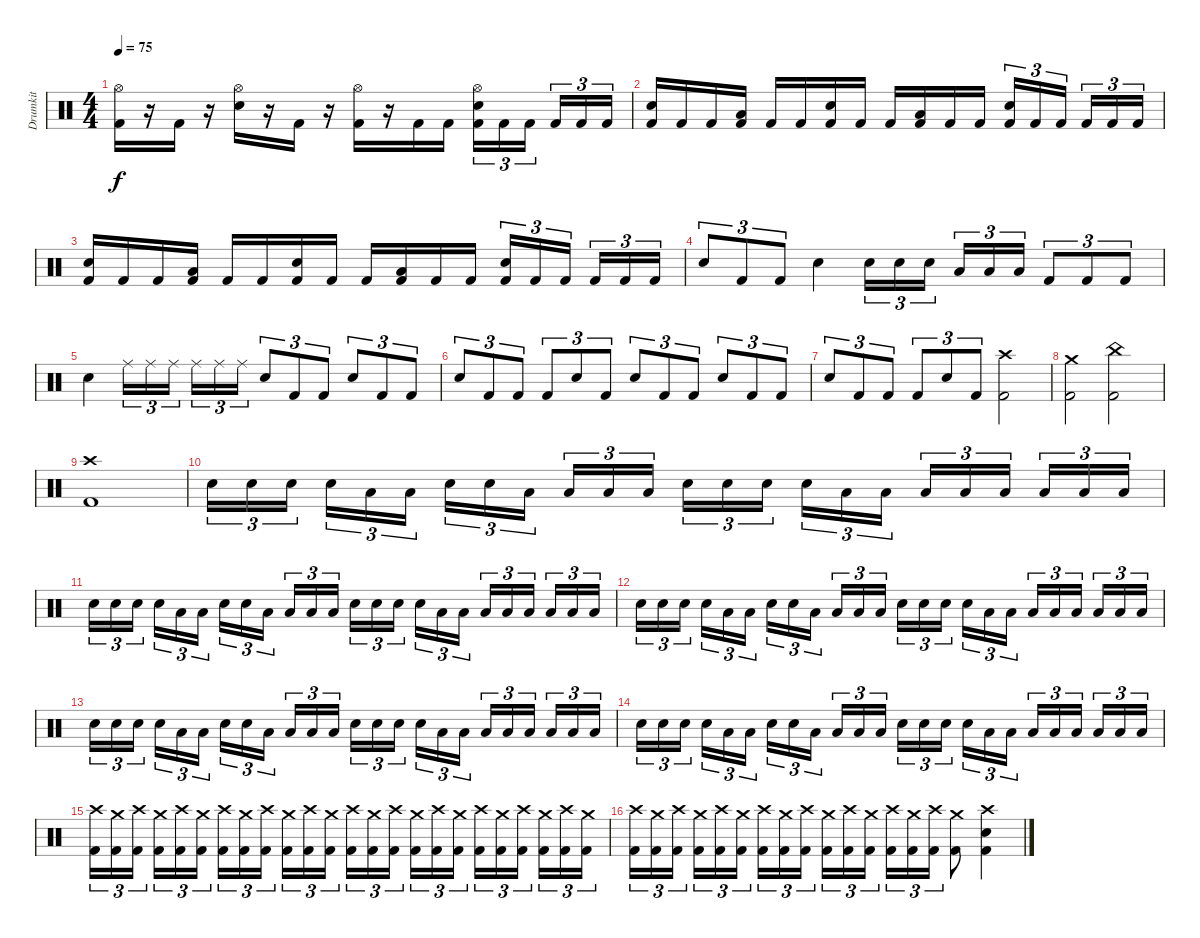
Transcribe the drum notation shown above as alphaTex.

\track ("Drumkit" "Drumkit") {instrument percussion}
\staff {score}
\articulation defaults
\ts (4 4)
\tempo 75
\clef neutral
\ks c
("Hi-Hat (open)" "Kick (hit) 2").16{dy f} r.16 "Kick (hit) 2".16 r.16 ("Hi-Hat (open)" "Snare (hit) 2").16 r.16 "Kick (hit) 2".16 r.16 ("Hi-Hat (open)" "Kick (hit) 2").16 r.16 "Kick (hit) 2".16 "Kick (hit) 2".16 ("Hi-Hat (open)" "Snare (hit) 2" "Kick (hit) 2").16{tu (3 2)} "Kick (hit) 2".16{tu (3 2)} "Kick (hit) 2".16{tu (3 2)} "Kick (hit) 2".16{tu (3 2)} "Kick (hit) 2".16{tu (3 2)} "Kick (hit) 2".16{tu (3 2)} |
("Snare (hit) 2" "Kick (hit) 2").16 "Kick (hit) 2".16 "Kick (hit) 2".16 ("Low Floor Tom (hit)" "Kick (hit) 2").16 "Kick (hit) 2".16 "Kick (hit) 2".16 ("Snare (hit) 2" "Kick (hit) 2").16 "Kick (hit) 2".16 "Kick (hit) 2".16 ("Low Floor Tom (hit)" "Kick (hit) 2").16 "Kick (hit) 2".16 "Kick (hit) 2".16 ("Snare (hit) 2" "Kick (hit) 2").16{tu (3 2)} "Kick (hit) 2".16{tu (3 2)} "Kick (hit) 2".16{tu (3 2)} "Kick (hit) 2".16{tu (3 2)} "Kick (hit) 2".16{tu (3 2)} "Kick (hit) 2".16{tu (3 2)} |
("Snare (hit) 2" "Kick (hit) 2").16 "Kick (hit) 2".16 "Kick (hit) 2".16 ("Low Floor Tom (hit)" "Kick (hit) 2").16 "Kick (hit) 2".16 "Kick (hit) 2".16 ("Snare (hit) 2" "Kick (hit) 2").16 "Kick (hit) 2".16 "Kick (hit) 2".16 ("Low Floor Tom (hit)" "Kick (hit) 2").16 "Kick (hit) 2".16 "Kick (hit) 2".16 ("Snare (hit) 2" "Kick (hit) 2").16{tu (3 2)} "Kick (hit) 2".16{tu (3 2)} "Kick (hit) 2".16{tu (3 2)} "Kick (hit) 2".16{tu (3 2)} "Kick (hit) 2".16{tu (3 2)} "Kick (hit) 2".16{tu (3 2)} |
"Snare (hit) 2".8{tu (3 2)} "Kick (hit) 2".8{tu (3 2)} "Kick (hit) 2".8{tu (3 2)} "Snare (hit) 2".4 "Snare (hit) 2".16{tu (3 2)} "Snare (hit) 2".16{tu (3 2)} "Snare (hit) 2".16{tu (3 2)} "Low Floor Tom (hit)".16{tu (3 2)} "Low Floor Tom (hit)".16{tu (3 2)} "Low Tom (hit)".16{tu (3 2)} "Kick (hit) 2".8{tu (3 2)} "Kick (hit) 2".8{tu (3 2)} "Kick (hit) 2".8{tu (3 2)} |
"Snare (hit) 2".4 "Ride (middle)".16{tu (3 2)} "Ride (middle)".16{tu (3 2)} "Ride (middle)".16{tu (3 2)} "Ride (middle)".16{tu (3 2)} "Ride (middle)".16{tu (3 2)} "Ride (middle)".16{tu (3 2)} "Snare (hit) 2".8{tu (3 2)} "Kick (hit) 2".8{tu (3 2)} "Kick (hit) 2".8{tu (3 2)} "Snare (hit) 2".8{tu (3 2)} "Kick (hit) 2".8{tu (3 2)} "Kick (hit) 2".8{tu (3 2)} |
"Snare (hit) 2".8{tu (3 2)} "Kick (hit) 2".8{tu (3 2)} "Kick (hit) 2".8{tu (3 2)} "Kick (hit) 2".8{tu (3 2)} "Snare (hit) 2".8{tu (3 2)} "Kick (hit) 2".8{tu (3 2)} "Snare (hit) 2".8{tu (3 2)} "Kick (hit) 2".8{tu (3 2)} "Kick (hit) 2".8{tu (3 2)} "Snare (hit) 2".8{tu (3 2)} "Kick (hit) 2".8{tu (3 2)} "Kick (hit) 2".8{tu (3 2)} |
"Snare (hit) 2".8{tu (3 2)} "Kick (hit) 2".8{tu (3 2)} "Kick (hit) 2".8{tu (3 2)} "Kick (hit) 2".8{tu (3 2)} "Snare (hit) 2".8{tu (3 2)} "Kick (hit) 2".8{tu (3 2)} ("Crash high (hit)" "Kick (hit) 2").2 |
("Crash medium (hit)" "Kick (hit) 2").2 ("China (hit)" "Kick (hit) 2").2 |
("Crash high (hit)" "Kick (hit) 2").1 |
"Snare (hit) 2".16{tu (3 2)} "Snare (hit) 2".16{tu (3 2)} "Snare (hit) 2".16{tu (3 2)} "Snare (hit) 2".16{tu (3 2)} "Low Floor Tom (hit)".16{tu (3 2)} "Low Floor Tom (hit)".16{tu (3 2)} "Snare (hit) 2".16{tu (3 2)} "Snare (hit) 2".16{tu (3 2)} "Low Tom (hit)".16{tu (3 2)} "Low Tom (hit)".16{tu (3 2)} "Low Tom (hit)".16{tu (3 2)} "Low Floor Tom (hit)".16{tu (3 2)} "Snare (hit) 2".16{tu (3 2)} "Snare (hit) 2".16{tu (3 2)} "Snare (hit) 2".16{tu (3 2)} "Snare (hit) 2".16{tu (3 2)} "Low Tom (hit)".16{tu (3 2)} "Low Tom (hit)".16{tu (3 2)} "Low Floor Tom (hit)".16{tu (3 2)} "Low Floor Tom (hit)".16{tu (3 2)} "Low Floor Tom (hit)".16{tu (3 2)} "Low Floor Tom (hit)".16{tu (3 2)} "Low Floor Tom (hit)".16{tu (3 2)} "Low Floor Tom (hit)".16{tu (3 2)} |
"Snare (hit) 2".16{tu (3 2)} "Snare (hit) 2".16{tu (3 2)} "Snare (hit) 2".16{tu (3 2)} "Snare (hit) 2".16{tu (3 2)} "Low Floor Tom (hit)".16{tu (3 2)} "Low Floor Tom (hit)".16{tu (3 2)} "Snare (hit) 2".16{tu (3 2)} "Snare (hit) 2".16{tu (3 2)} "Low Tom (hit)".16{tu (3 2)} "Low Tom (hit)".16{tu (3 2)} "Low Tom (hit)".16{tu (3 2)} "Low Floor Tom (hit)".16{tu (3 2)} "Snare (hit) 2".16{tu (3 2)} "Snare (hit) 2".16{tu (3 2)} "Snare (hit) 2".16{tu (3 2)} "Snare (hit) 2".16{tu (3 2)} "Low Tom (hit)".16{tu (3 2)} "Low Tom (hit)".16{tu (3 2)} "Low Floor Tom (hit)".16{tu (3 2)} "Low Floor Tom (hit)".16{tu (3 2)} "Low Floor Tom (hit)".16{tu (3 2)} "Low Floor Tom (hit)".16{tu (3 2)} "Low Floor Tom (hit)".16{tu (3 2)} "Low Floor Tom (hit)".16{tu (3 2)} |
"Snare (hit) 2".16{tu (3 2)} "Snare (hit) 2".16{tu (3 2)} "Snare (hit) 2".16{tu (3 2)} "Snare (hit) 2".16{tu (3 2)} "Low Floor Tom (hit)".16{tu (3 2)} "Low Floor Tom (hit)".16{tu (3 2)} "Snare (hit) 2".16{tu (3 2)} "Snare (hit) 2".16{tu (3 2)} "Low Tom (hit)".16{tu (3 2)} "Low Tom (hit)".16{tu (3 2)} "Low Tom (hit)".16{tu (3 2)} "Low Floor Tom (hit)".16{tu (3 2)} "Snare (hit) 2".16{tu (3 2)} "Snare (hit) 2".16{tu (3 2)} "Snare (hit) 2".16{tu (3 2)} "Snare (hit) 2".16{tu (3 2)} "Low Tom (hit)".16{tu (3 2)} "Low Tom (hit)".16{tu (3 2)} "Low Floor Tom (hit)".16{tu (3 2)} "Low Floor Tom (hit)".16{tu (3 2)} "Low Floor Tom (hit)".16{tu (3 2)} "Low Floor Tom (hit)".16{tu (3 2)} "Low Floor Tom (hit)".16{tu (3 2)} "Low Floor Tom (hit)".16{tu (3 2)} |
"Snare (hit) 2".16{tu (3 2)} "Snare (hit) 2".16{tu (3 2)} "Snare (hit) 2".16{tu (3 2)} "Snare (hit) 2".16{tu (3 2)} "Low Floor Tom (hit)".16{tu (3 2)} "Low Floor Tom (hit)".16{tu (3 2)} "Snare (hit) 2".16{tu (3 2)} "Snare (hit) 2".16{tu (3 2)} "Low Tom (hit)".16{tu (3 2)} "Low Tom (hit)".16{tu (3 2)} "Low Tom (hit)".16{tu (3 2)} "Low Floor Tom (hit)".16{tu (3 2)} "Snare (hit) 2".16{tu (3 2)} "Snare (hit) 2".16{tu (3 2)} "Snare (hit) 2".16{tu (3 2)} "Snare (hit) 2".16{tu (3 2)} "Low Tom (hit)".16{tu (3 2)} "Low Tom (hit)".16{tu (3 2)} "Low Floor Tom (hit)".16{tu (3 2)} "Low Floor Tom (hit)".16{tu (3 2)} "Low Floor Tom (hit)".16{tu (3 2)} "Low Floor Tom (hit)".16{tu (3 2)} "Low Floor Tom (hit)".16{tu (3 2)} "Low Floor Tom (hit)".16{tu (3 2)} |
"Snare (hit) 2".16{tu (3 2)} "Snare (hit) 2".16{tu (3 2)} "Snare (hit) 2".16{tu (3 2)} "Snare (hit) 2".16{tu (3 2)} "Low Floor Tom (hit)".16{tu (3 2)} "Low Floor Tom (hit)".16{tu (3 2)} "Snare (hit) 2".16{tu (3 2)} "Snare (hit) 2".16{tu (3 2)} "Low Tom (hit)".16{tu (3 2)} "Low Tom (hit)".16{tu (3 2)} "Low Tom (hit)".16{tu (3 2)} "Low Floor Tom (hit)".16{tu (3 2)} "Snare (hit) 2".16{tu (3 2)} "Snare (hit) 2".16{tu (3 2)} "Snare (hit) 2".16{tu (3 2)} "Snare (hit) 2".16{tu (3 2)} "Low Tom (hit)".16{tu (3 2)} "Low Tom (hit)".16{tu (3 2)} "Low Floor Tom (hit)".16{tu (3 2)} "Low Floor Tom (hit)".16{tu (3 2)} "Low Floor Tom (hit)".16{tu (3 2)} "Low Floor Tom (hit)".16{tu (3 2)} "Low Floor Tom (hit)".16{tu (3 2)} "Low Floor Tom (hit)".16{tu (3 2)} |
("Crash high (hit)" "Kick (hit) 2").16{tu (3 2)} ("Crash medium (hit)" "Kick (hit) 2").16{tu (3 2)} ("Crash high (hit)" "Kick (hit) 2").16{tu (3 2)} ("Crash medium (hit)" "Kick (hit) 2").16{tu (3 2)} ("Crash high (hit)" "Kick (hit) 2").16{tu (3 2)} ("Crash medium (hit)" "Kick (hit) 2").16{tu (3 2)} ("Crash high (hit)" "Kick (hit) 2").16{tu (3 2)} ("Crash medium (hit)" "Kick (hit) 2").16{tu (3 2)} ("Crash high (hit)" "Kick (hit) 2").16{tu (3 2)} ("Crash medium (hit)" "Kick (hit) 2").16{tu (3 2)} ("Crash high (hit)" "Kick (hit) 2").16{tu (3 2)} ("Crash medium (hit)" "Kick (hit) 2").16{tu (3 2)} ("Crash high (hit)" "Kick (hit) 2").16{tu (3 2)} ("Crash medium (hit)" "Kick (hit) 2").16{tu (3 2)} ("Crash high (hit)" "Kick (hit) 2").16{tu (3 2)} ("Crash medium (hit)" "Kick (hit) 2").16{tu (3 2)} ("Crash high (hit)" "Kick (hit) 2").16{tu (3 2)} ("Crash medium (hit)" "Kick (hit) 2").16{tu (3 2)} ("Crash high (hit)" "Kick (hit) 2").16{tu (3 2)} ("Crash medium (hit)" "Kick (hit) 2").16{tu (3 2)} ("Crash high (hit)" "Kick (hit) 2").16{tu (3 2)} ("Crash medium (hit)" "Kick (hit) 2").16{tu (3 2)} ("Crash high (hit)" "Kick (hit) 2").16{tu (3 2)} ("Crash medium (hit)" "Kick (hit) 2").16{tu (3 2)} |
("Crash high (hit)" "Kick (hit) 2").16{tu (3 2)} ("Crash medium (hit)" "Kick (hit) 2").16{tu (3 2)} ("Crash high (hit)" "Kick (hit) 2").16{tu (3 2)} ("Crash medium (hit)" "Kick (hit) 2").16{tu (3 2)} ("Crash high (hit)" "Kick (hit) 2").16{tu (3 2)} ("Crash medium (hit)" "Kick (hit) 2").16{tu (3 2)} ("Crash high (hit)" "Kick (hit) 2").16{tu (3 2)} ("Crash medium (hit)" "Kick (hit) 2").16{tu (3 2)} ("Crash high (hit)" "Kick (hit) 2").16{tu (3 2)} ("Crash medium (hit)" "Kick (hit) 2").16{tu (3 2)} ("Crash high (hit)" "Kick (hit) 2").16{tu (3 2)} ("Crash medium (hit)" "Kick (hit) 2").16{tu (3 2)} ("Crash high (hit)" "Kick (hit) 2").16{tu (3 2)} ("Crash medium (hit)" "Kick (hit) 2").16{tu (3 2)} ("Crash high (hit)" "Kick (hit) 2").16{tu (3 2)} ("Crash medium (hit)" "Kick (hit) 2").8 ("Crash high (hit)" "Snare (hit) 2" "Kick (hit) 2").4
